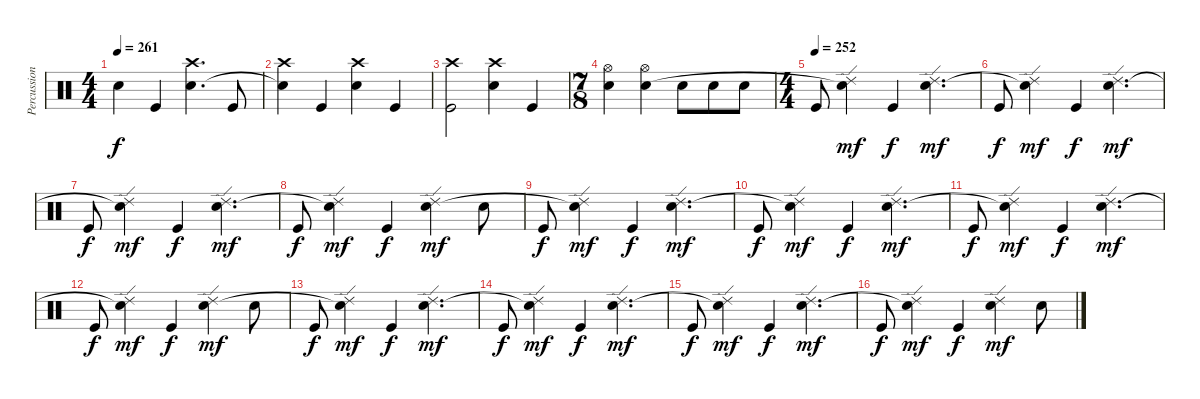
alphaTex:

\track ("Percussion" "Percussion") {instrument percussion}
\staff {score}
\articulation defaults
\ts (4 4)
\tempo 261
\clef neutral
\ks c "Snare (hit)"{t}.4{dy f} "Kick (hit)".4
("Crash high (hit)" "Electric Snare (hit)").4{d} "Kick (hit)".8 |
("Crash high (hit)" "Snare (hit)"{t}).4 "Kick (hit)".4 ("Crash high (hit)" "Electric Snare (hit)").4 "Kick (hit)".4 |
("Crash high (hit)" "Kick (hit)").2 ("Crash high (hit)" "Electric Snare (hit)").4 "Kick (hit)".4 |
\ts (7 8)
("Hi-Hat (open)" "Electric Snare (hit)").4 ("Hi-Hat (open)" "Electric Snare (hit)").4 "Electric Snare (hit)".8 "Electric Snare (hit)".8 "Electric Snare (hit)".8 |
\ts (4 4)
\tempo (252)
"Kick (hit)".8 ("Ride (edge) 2" "Snare (hit)"{t}).4{dy mf} "Kick (hit)".4{dy f} ("Ride (edge) 2" "Electric Snare (hit)").4{d dy mf} |
"Kick (hit)".8{dy f} ("Ride (edge) 2" "Snare (hit)"{t}).4{dy mf} "Kick (hit)".4{dy f} ("Ride (edge) 2" "Electric Snare (hit)").4{d dy mf} |
"Kick (hit)".8{dy f} ("Ride (edge) 2" "Snare (hit)"{t}).4{dy mf} "Kick (hit)".4{dy f} ("Ride (edge) 2" "Electric Snare (hit)").4{d dy mf} |
"Kick (hit)".8{dy f} ("Ride (edge) 2" "Snare (hit)"{t}).4{dy mf} "Kick (hit)".4{dy f} ("Ride (edge) 2" "Electric Snare (hit)").4{dy mf} "Electric Snare (hit)".8 |
"Kick (hit)".8{dy f} ("Ride (edge) 2" "Snare (hit)"{t}).4{dy mf} "Kick (hit)".4{dy f} ("Ride (edge) 2" "Electric Snare (hit)").4{d dy mf} |
"Kick (hit)".8{dy f} ("Ride (edge) 2" "Snare (hit)"{t}).4{dy mf} "Kick (hit)".4{dy f} ("Ride (edge) 2" "Electric Snare (hit)").4{d dy mf} |
"Kick (hit)".8{dy f} ("Ride (edge) 2" "Snare (hit)"{t}).4{dy mf} "Kick (hit)".4{dy f} ("Ride (edge) 2" "Electric Snare (hit)").4{d dy mf} |
"Kick (hit)".8{dy f} ("Ride (edge) 2" "Snare (hit)"{t}).4{dy mf} "Kick (hit)".4{dy f} ("Ride (edge) 2" "Electric Snare (hit)").4{dy mf} "Electric Snare (hit)".8 |
"Kick (hit)".8{dy f} ("Ride (edge) 2" "Snare (hit)"{t}).4{dy mf} "Kick (hit)".4{dy f} ("Ride (edge) 2" "Electric Snare (hit)").4{d dy mf} |
"Kick (hit)".8{dy f} ("Ride (edge) 2" "Snare (hit)"{t}).4{dy mf} "Kick (hit)".4{dy f} ("Ride (edge) 2" "Electric Snare (hit)").4{d dy mf} |
"Kick (hit)".8{dy f} ("Ride (edge) 2" "Snare (hit)"{t}).4{dy mf} "Kick (hit)".4{dy f} ("Ride (edge) 2" "Electric Snare (hit)").4{d dy mf} |
"Kick (hit)".8{dy f} ("Ride (edge) 2" "Snare (hit)"{t}).4{dy mf} "Kick (hit)".4{dy f} ("Ride (edge) 2" "Electric Snare (hit)").4{dy mf} "Electric Snare (hit)".8
